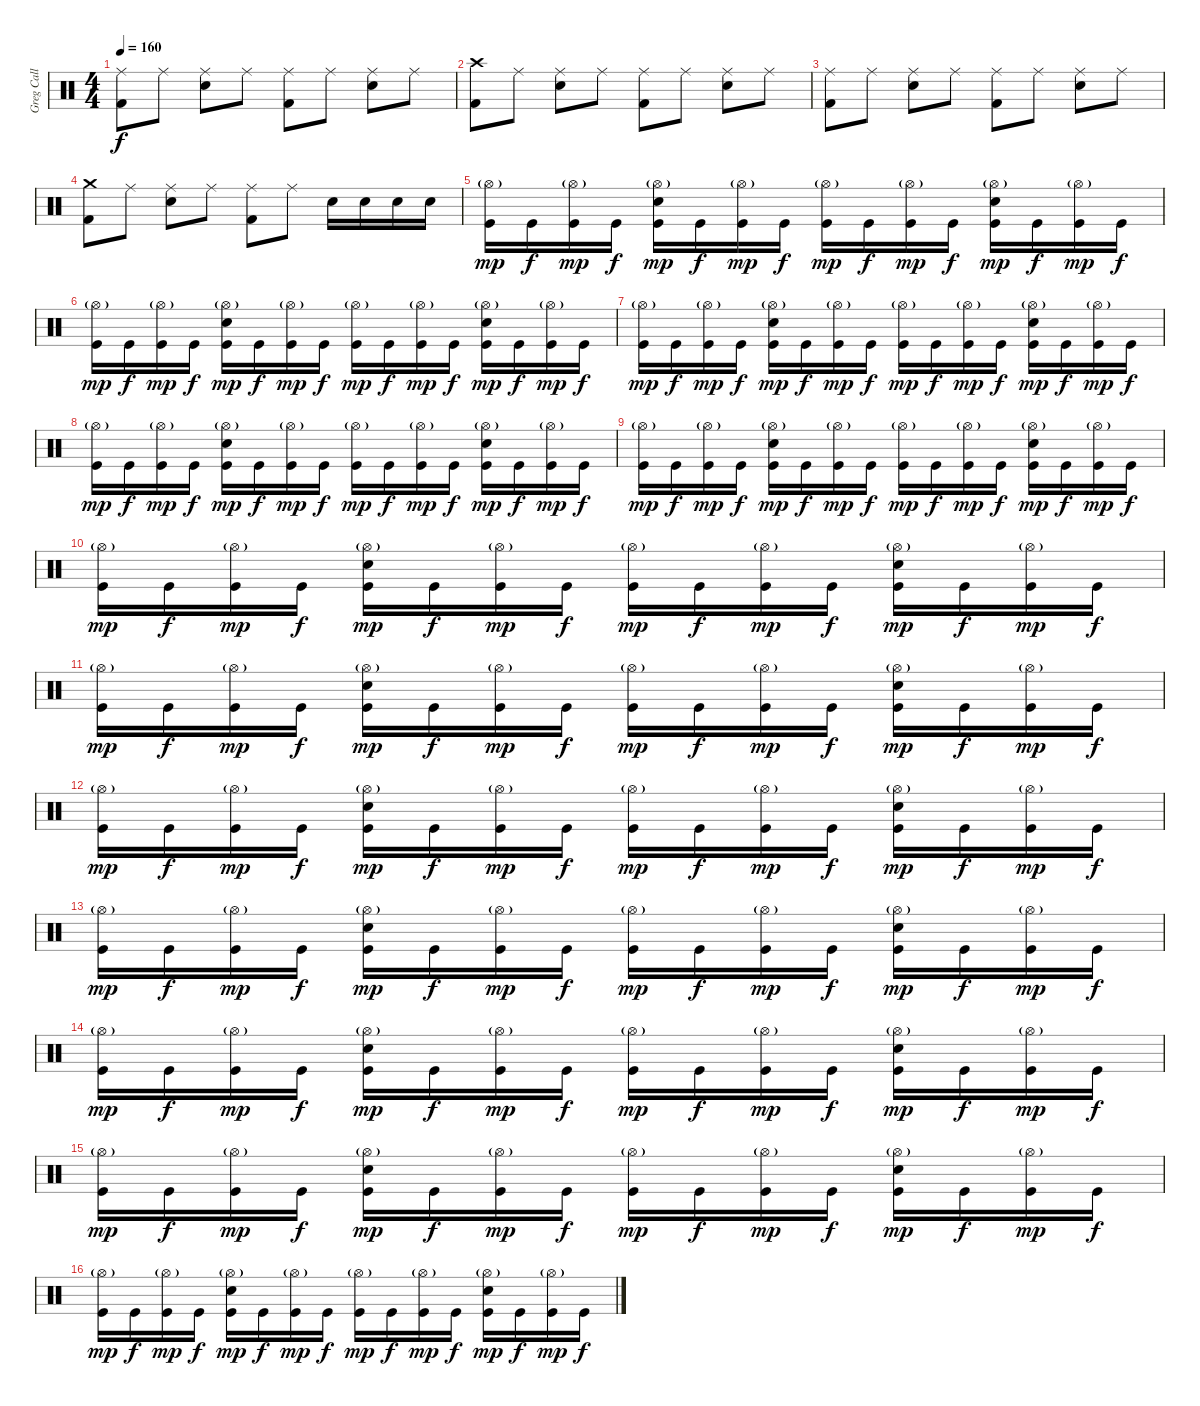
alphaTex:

\track ("Greg Call (Drums)" "Greg Call ") {instrument percussion}
\staff {score}
\articulation defaults
\ts (4 4)
\tempo 160
\clef neutral
\ks c
("Ride (middle)" "Kick (hit) 2").8{dy f} "Ride (middle)".8 ("Ride (middle)" "Electric Snare (hit)").8 "Ride (middle)".8 ("Ride (middle)" "Kick (hit) 2").8 "Ride (middle)".8 ("Ride (middle)" "Electric Snare (hit)").8 "Ride (middle)".8 |
("Crash high (hit)" "Kick (hit) 2").8 "Ride (middle)".8 ("Ride (middle)" "Electric Snare (hit)").8 "Ride (middle)".8 ("Ride (middle)" "Kick (hit) 2").8 "Ride (middle)".8 ("Ride (middle)" "Electric Snare (hit)").8 "Ride (middle)".8 |
("Ride (middle)" "Kick (hit) 2").8 "Ride (middle)".8 ("Ride (middle)" "Electric Snare (hit)").8 "Ride (middle)".8 ("Ride (middle)" "Kick (hit) 2").8 "Ride (middle)".8 ("Ride (middle)" "Electric Snare (hit)").8 "Ride (middle)".8 |
("Crash medium (hit)" "Kick (hit) 2").8 "Ride (middle)".8 ("Ride (middle)" "Electric Snare (hit)").8 "Ride (middle)".8 ("Ride (middle)" "Kick (hit) 2").8 "Ride (middle)".8 "Electric Snare (hit)".16 "Electric Snare (hit)".16 "Electric Snare (hit)".16 "Electric Snare (hit)".16 |
("Hi-Hat (open)"{g} "Kick (hit)").16{dy mp} "Kick (hit)".16{dy f} ("Hi-Hat (open)"{g} "Kick (hit)").16{dy mp} "Kick (hit)".16{dy f} ("Hi-Hat (open)"{g} "Electric Snare (hit)" "Kick (hit)").16{dy mp} "Kick (hit)".16{dy f} ("Hi-Hat (open)"{g} "Kick (hit)").16{dy mp} "Kick (hit)".16{dy f} ("Hi-Hat (open)"{g} "Kick (hit)").16{dy mp} "Kick (hit)".16{dy f} ("Hi-Hat (open)"{g} "Kick (hit)").16{dy mp} "Kick (hit)".16{dy f} ("Hi-Hat (open)"{g} "Electric Snare (hit)" "Kick (hit)").16{dy mp} "Kick (hit)".16{dy f} ("Hi-Hat (open)"{g} "Kick (hit)").16{dy mp} "Kick (hit)".16{dy f} |
("Hi-Hat (open)"{g} "Kick (hit)").16{dy mp} "Kick (hit)".16{dy f} ("Hi-Hat (open)"{g} "Kick (hit)").16{dy mp} "Kick (hit)".16{dy f} ("Hi-Hat (open)"{g} "Electric Snare (hit)" "Kick (hit)").16{dy mp} "Kick (hit)".16{dy f} ("Hi-Hat (open)"{g} "Kick (hit)").16{dy mp} "Kick (hit)".16{dy f} ("Hi-Hat (open)"{g} "Kick (hit)").16{dy mp} "Kick (hit)".16{dy f} ("Hi-Hat (open)"{g} "Kick (hit)").16{dy mp} "Kick (hit)".16{dy f} ("Hi-Hat (open)"{g} "Electric Snare (hit)" "Kick (hit)").16{dy mp} "Kick (hit)".16{dy f} ("Hi-Hat (open)"{g} "Kick (hit)").16{dy mp} "Kick (hit)".16{dy f} |
("Hi-Hat (open)"{g} "Kick (hit)").16{dy mp} "Kick (hit)".16{dy f} ("Hi-Hat (open)"{g} "Kick (hit)").16{dy mp} "Kick (hit)".16{dy f} ("Hi-Hat (open)"{g} "Electric Snare (hit)" "Kick (hit)").16{dy mp} "Kick (hit)".16{dy f} ("Hi-Hat (open)"{g} "Kick (hit)").16{dy mp} "Kick (hit)".16{dy f} ("Hi-Hat (open)"{g} "Kick (hit)").16{dy mp} "Kick (hit)".16{dy f} ("Hi-Hat (open)"{g} "Kick (hit)").16{dy mp} "Kick (hit)".16{dy f} ("Hi-Hat (open)"{g} "Electric Snare (hit)" "Kick (hit)").16{dy mp} "Kick (hit)".16{dy f} ("Hi-Hat (open)"{g} "Kick (hit)").16{dy mp} "Kick (hit)".16{dy f} |
("Hi-Hat (open)"{g} "Kick (hit)").16{dy mp} "Kick (hit)".16{dy f} ("Hi-Hat (open)"{g} "Kick (hit)").16{dy mp} "Kick (hit)".16{dy f} ("Hi-Hat (open)"{g} "Electric Snare (hit)" "Kick (hit)").16{dy mp} "Kick (hit)".16{dy f} ("Hi-Hat (open)"{g} "Kick (hit)").16{dy mp} "Kick (hit)".16{dy f} ("Hi-Hat (open)"{g} "Kick (hit)").16{dy mp} "Kick (hit)".16{dy f} ("Hi-Hat (open)"{g} "Kick (hit)").16{dy mp} "Kick (hit)".16{dy f} ("Hi-Hat (open)"{g} "Electric Snare (hit)" "Kick (hit)").16{dy mp} "Kick (hit)".16{dy f} ("Hi-Hat (open)"{g} "Kick (hit)").16{dy mp} "Kick (hit)".16{dy f} |
("Hi-Hat (open)"{g} "Kick (hit)").16{dy mp} "Kick (hit)".16{dy f} ("Hi-Hat (open)"{g} "Kick (hit)").16{dy mp} "Kick (hit)".16{dy f} ("Hi-Hat (open)"{g} "Electric Snare (hit)" "Kick (hit)").16{dy mp} "Kick (hit)".16{dy f} ("Hi-Hat (open)"{g} "Kick (hit)").16{dy mp} "Kick (hit)".16{dy f} ("Hi-Hat (open)"{g} "Kick (hit)").16{dy mp} "Kick (hit)".16{dy f} ("Hi-Hat (open)"{g} "Kick (hit)").16{dy mp} "Kick (hit)".16{dy f} ("Hi-Hat (open)"{g} "Electric Snare (hit)" "Kick (hit)").16{dy mp} "Kick (hit)".16{dy f} ("Hi-Hat (open)"{g} "Kick (hit)").16{dy mp} "Kick (hit)".16{dy f} |
("Hi-Hat (open)"{g} "Kick (hit)").16{dy mp} "Kick (hit)".16{dy f} ("Hi-Hat (open)"{g} "Kick (hit)").16{dy mp} "Kick (hit)".16{dy f} ("Hi-Hat (open)"{g} "Electric Snare (hit)" "Kick (hit)").16{dy mp} "Kick (hit)".16{dy f} ("Hi-Hat (open)"{g} "Kick (hit)").16{dy mp} "Kick (hit)".16{dy f} ("Hi-Hat (open)"{g} "Kick (hit)").16{dy mp} "Kick (hit)".16{dy f} ("Hi-Hat (open)"{g} "Kick (hit)").16{dy mp} "Kick (hit)".16{dy f} ("Hi-Hat (open)"{g} "Electric Snare (hit)" "Kick (hit)").16{dy mp} "Kick (hit)".16{dy f} ("Hi-Hat (open)"{g} "Kick (hit)").16{dy mp} "Kick (hit)".16{dy f} |
("Hi-Hat (open)"{g} "Kick (hit)").16{dy mp} "Kick (hit)".16{dy f} ("Hi-Hat (open)"{g} "Kick (hit)").16{dy mp} "Kick (hit)".16{dy f} ("Hi-Hat (open)"{g} "Electric Snare (hit)" "Kick (hit)").16{dy mp} "Kick (hit)".16{dy f} ("Hi-Hat (open)"{g} "Kick (hit)").16{dy mp} "Kick (hit)".16{dy f} ("Hi-Hat (open)"{g} "Kick (hit)").16{dy mp} "Kick (hit)".16{dy f} ("Hi-Hat (open)"{g} "Kick (hit)").16{dy mp} "Kick (hit)".16{dy f} ("Hi-Hat (open)"{g} "Electric Snare (hit)" "Kick (hit)").16{dy mp} "Kick (hit)".16{dy f} ("Hi-Hat (open)"{g} "Kick (hit)").16{dy mp} "Kick (hit)".16{dy f} |
("Hi-Hat (open)"{g} "Kick (hit)").16{dy mp} "Kick (hit)".16{dy f} ("Hi-Hat (open)"{g} "Kick (hit)").16{dy mp} "Kick (hit)".16{dy f} ("Hi-Hat (open)"{g} "Electric Snare (hit)" "Kick (hit)").16{dy mp} "Kick (hit)".16{dy f} ("Hi-Hat (open)"{g} "Kick (hit)").16{dy mp} "Kick (hit)".16{dy f} ("Hi-Hat (open)"{g} "Kick (hit)").16{dy mp} "Kick (hit)".16{dy f} ("Hi-Hat (open)"{g} "Kick (hit)").16{dy mp} "Kick (hit)".16{dy f} ("Hi-Hat (open)"{g} "Electric Snare (hit)" "Kick (hit)").16{dy mp} "Kick (hit)".16{dy f} ("Hi-Hat (open)"{g} "Kick (hit)").16{dy mp} "Kick (hit)".16{dy f} |
("Hi-Hat (open)"{g} "Kick (hit)").16{dy mp} "Kick (hit)".16{dy f} ("Hi-Hat (open)"{g} "Kick (hit)").16{dy mp} "Kick (hit)".16{dy f} ("Hi-Hat (open)"{g} "Electric Snare (hit)" "Kick (hit)").16{dy mp} "Kick (hit)".16{dy f} ("Hi-Hat (open)"{g} "Kick (hit)").16{dy mp} "Kick (hit)".16{dy f} ("Hi-Hat (open)"{g} "Kick (hit)").16{dy mp} "Kick (hit)".16{dy f} ("Hi-Hat (open)"{g} "Kick (hit)").16{dy mp} "Kick (hit)".16{dy f} ("Hi-Hat (open)"{g} "Electric Snare (hit)" "Kick (hit)").16{dy mp} "Kick (hit)".16{dy f} ("Hi-Hat (open)"{g} "Kick (hit)").16{dy mp} "Kick (hit)".16{dy f} |
("Hi-Hat (open)"{g} "Kick (hit)").16{dy mp} "Kick (hit)".16{dy f} ("Hi-Hat (open)"{g} "Kick (hit)").16{dy mp} "Kick (hit)".16{dy f} ("Hi-Hat (open)"{g} "Electric Snare (hit)" "Kick (hit)").16{dy mp} "Kick (hit)".16{dy f} ("Hi-Hat (open)"{g} "Kick (hit)").16{dy mp} "Kick (hit)".16{dy f} ("Hi-Hat (open)"{g} "Kick (hit)").16{dy mp} "Kick (hit)".16{dy f} ("Hi-Hat (open)"{g} "Kick (hit)").16{dy mp} "Kick (hit)".16{dy f} ("Hi-Hat (open)"{g} "Electric Snare (hit)" "Kick (hit)").16{dy mp} "Kick (hit)".16{dy f} ("Hi-Hat (open)"{g} "Kick (hit)").16{dy mp} "Kick (hit)".16{dy f} |
("Hi-Hat (open)"{g} "Kick (hit)").16{dy mp} "Kick (hit)".16{dy f} ("Hi-Hat (open)"{g} "Kick (hit)").16{dy mp} "Kick (hit)".16{dy f} ("Hi-Hat (open)"{g} "Electric Snare (hit)" "Kick (hit)").16{dy mp} "Kick (hit)".16{dy f} ("Hi-Hat (open)"{g} "Kick (hit)").16{dy mp} "Kick (hit)".16{dy f} ("Hi-Hat (open)"{g} "Kick (hit)").16{dy mp} "Kick (hit)".16{dy f} ("Hi-Hat (open)"{g} "Kick (hit)").16{dy mp} "Kick (hit)".16{dy f} ("Hi-Hat (open)"{g} "Electric Snare (hit)" "Kick (hit)").16{dy mp} "Kick (hit)".16{dy f} ("Hi-Hat (open)"{g} "Kick (hit)").16{dy mp} "Kick (hit)".16{dy f} |
("Hi-Hat (open)"{g} "Kick (hit)").16{dy mp} "Kick (hit)".16{dy f} ("Hi-Hat (open)"{g} "Kick (hit)").16{dy mp} "Kick (hit)".16{dy f} ("Hi-Hat (open)"{g} "Electric Snare (hit)" "Kick (hit)").16{dy mp} "Kick (hit)".16{dy f} ("Hi-Hat (open)"{g} "Kick (hit)").16{dy mp} "Kick (hit)".16{dy f} ("Hi-Hat (open)"{g} "Kick (hit)").16{dy mp} "Kick (hit)".16{dy f} ("Hi-Hat (open)"{g} "Kick (hit)").16{dy mp} "Kick (hit)".16{dy f} ("Hi-Hat (open)"{g} "Electric Snare (hit)" "Kick (hit)").16{dy mp} "Kick (hit)".16{dy f} ("Hi-Hat (open)"{g} "Kick (hit)").16{dy mp} "Kick (hit)".16{dy f}
